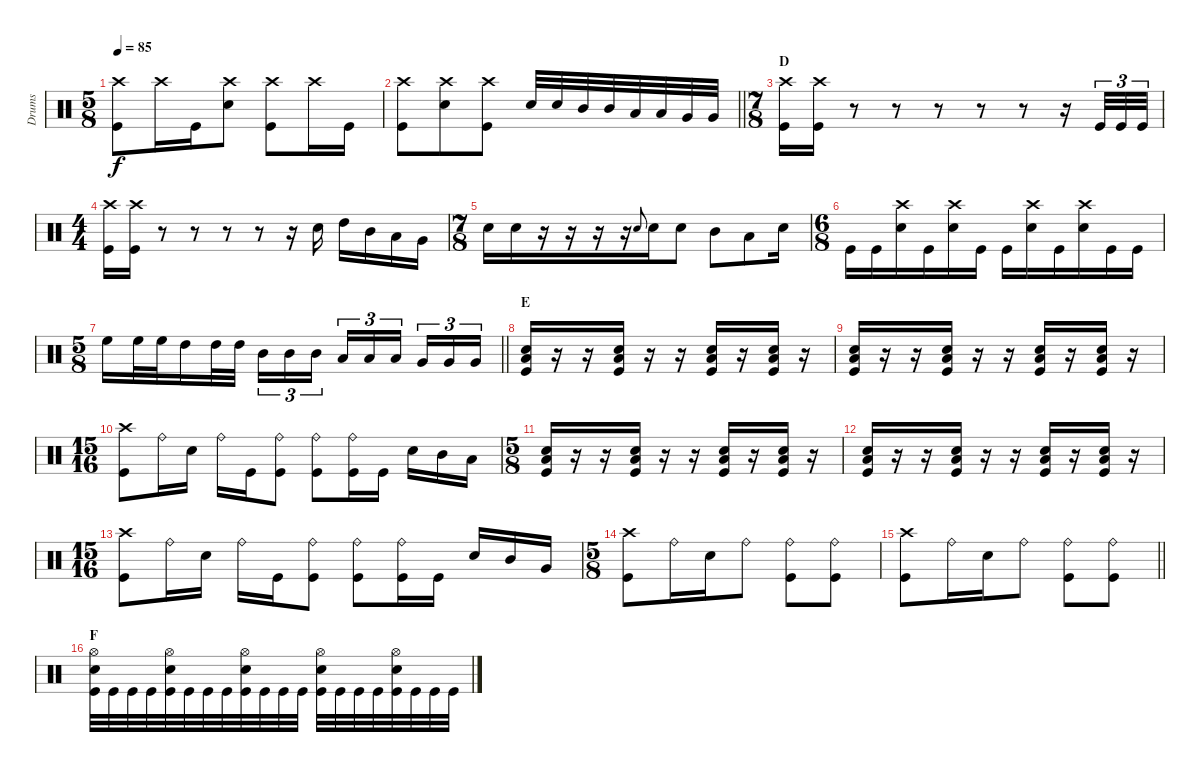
\track ("Drums" "Drums") {instrument percussion}
\staff {score}
\articulation defaults
\ts (5 8)
\tempo 85
\clef neutral
\ks c
("Crash high (hit)" "Kick (hit)").8{dy f} "Crash high (hit)".16 "Kick (hit)".16 ("Crash high (hit)" "Snare (hit) 2").8 ("Crash high (hit)" "Kick (hit)").8 "Crash high (hit)".16 "Kick (hit)".16 |
\barLineRight lightlight
("Crash high (hit)" "Kick (hit)").8 ("Snare (hit) 2" "Crash high (hit)").8 ("Crash high (hit)" "Kick (hit)").8 "Snare (hit) 2".32 "Snare (hit) 2".32 "Mid Tom (hit)".32 "Mid Tom (hit)".32 "Low Tom (hit)".32 "Low Tom (hit)".32 "Very Low Tom (hit)".32 "Very Low Tom (hit)".32 |
\ts (7 8)
\section ("" "D")
("Crash high (hit)" "Kick (hit)").16 ("Crash high (hit)" "Kick (hit)").16 r.8 r.8 r.8 r.8 r.8 r.16 "Kick (hit)".32{tu (3 2)} "Kick (hit)".32{tu (3 2)} "Kick (hit)".32{tu (3 2)} |
\ts (4 4)
("Crash high (hit)" "Kick (hit)").16 ("Crash high (hit)" "Kick (hit)").16 r.8 r.8 r.8 r.8 r.16 "Snare (hit) 2".16 "High Tom (hit)".16 "Mid Tom (hit)".16 "Low Tom (hit)".16 "Very Low Tom (hit)".16 |
\ts (7 8)
"Snare (hit) 2".16 "Snare (hit) 2".16 r.16 r.16 r.16 r.16 "Snare (hit) 2".8{gr onbeat} "Snare (hit) 2".16 "Snare (hit) 2".8 "Mid Tom (hit)".8 "Low Tom (hit)".8 "Snare (hit) 2".16 |
\ts (6 8)
"Kick (hit)".16 "Kick (hit)".16 ("Snare (hit) 2" "Crash high (hit)").16 "Kick (hit)".16 ("Crash high (hit)" "Snare (hit) 2").16 "Kick (hit)".16 "Kick (hit)".16 ("Crash high (hit)" "Snare (hit) 2").16 "Kick (hit)".16 ("Crash high (hit)" "Snare (hit) 2").16 "Kick (hit)".16 "Kick (hit)".16 |
\ts (5 8)
\barLineRight lightlight "High Floor Tom (hit)".16 "High Floor Tom (hit)".32 "High Floor Tom (hit)".32 "High Tom (hit)".16 "High Tom (hit)".32 "High Tom (hit)".32 "Mid Tom (hit)".16{tu (3 2)} "Mid Tom (hit)".16{tu (3 2)} "Mid Tom (hit)".16{tu (3 2)} "Low Tom (hit)".16{tu (3 2)} "Low Tom (hit)".16{tu (3 2)} "Low Tom (hit)".16{tu (3 2)} "Very Low Tom (hit)".16{tu (3 2)} "Very Low Tom (hit)".16{tu (3 2)} "Very Low Tom (hit)".16{tu (3 2)}
|
\section ("" "E")
("Snare (hit) 2" "Kick (hit)" "Low Floor Tom (hit)").16 r.16 r.16 ("Snare (hit) 2" "Kick (hit)" "Low Floor Tom (hit)").16 r.16 r.16 ("Snare (hit) 2" "Kick (hit)" "Low Floor Tom (hit)").16 r.16 ("Snare (hit) 2" "Kick (hit)" "Low Floor Tom (hit)").16 r.16 |
("Snare (hit) 2" "Kick (hit)" "Low Floor Tom (hit)").16 r.16 r.16 ("Snare (hit) 2" "Kick (hit)" "Low Floor Tom (hit)").16 r.16 r.16 ("Snare (hit) 2" "Kick (hit)" "Low Floor Tom (hit)").16 r.16 ("Snare (hit) 2" "Kick (hit)" "Low Floor Tom (hit)").16 r.16 |
\ts (15 16)
("Crash high (hit)" "Kick (hit)").8 "Ride (bell)".16 "Snare (hit) 2".16 "Ride (bell)".16 "Kick (hit)".16 ("Ride (bell)" "Kick (hit)").8 ("Ride (bell)" "Kick (hit)").8 ("Ride (bell)" "Kick (hit)").16 "Kick (hit)".16 "Snare (hit) 2".16 "Mid Tom (hit)".16 "Low Tom (hit)".16 |
\ts (5 8)
("Snare (hit) 2" "Kick (hit)" "Low Floor Tom (hit)").16 r.16 r.16 ("Snare (hit) 2" "Kick (hit)" "Low Floor Tom (hit)").16 r.16 r.16 ("Snare (hit) 2" "Kick (hit)" "Low Floor Tom (hit)").16 r.16 ("Snare (hit) 2" "Kick (hit)" "Low Floor Tom (hit)").16 r.16 |
("Snare (hit) 2" "Kick (hit)" "Low Floor Tom (hit)").16 r.16 r.16 ("Snare (hit) 2" "Kick (hit)" "Low Floor Tom (hit)").16 r.16 r.16 ("Snare (hit) 2" "Kick (hit)" "Low Floor Tom (hit)").16 r.16 ("Snare (hit) 2" "Kick (hit)" "Low Floor Tom (hit)").16 r.16 |
\ts (15 16)
("Crash high (hit)" "Kick (hit)").8 "Ride (bell)".16 "Snare (hit) 2".16 "Ride (bell)".16 "Kick (hit)".16 ("Ride (bell)" "Kick (hit)").8 ("Ride (bell)" "Kick (hit)").8 ("Ride (bell)" "Kick (hit)").16 "Kick (hit)".16 "Snare (hit) 2".16 "Mid Tom (hit)".16 "Very Low Tom (hit)".16 |
\ts (5 8)
("Crash high (hit)" "Kick (hit)").8 "Ride (bell)".16 "Snare (hit) 2".16 "Ride (bell)".8 ("Ride (bell)" "Kick (hit)").8 ("Ride (bell)" "Kick (hit)").8 |
\barLineRight lightlight
("Crash high (hit)" "Kick (hit)").8 "Ride (bell)".16 "Snare (hit) 2".16 "Ride (bell)".8 ("Ride (bell)" "Kick (hit)").8 ("Ride (bell)" "Kick (hit)").8 |
\section ("" "F")
("Hi-Hat (open)" "Kick (hit)" "Snare (hit) 2").32 "Kick (hit)".32 "Kick (hit)".32 "Kick (hit)".32 ("Hi-Hat (open)" "Kick (hit)" "Snare (hit) 2").32 "Kick (hit)".32 "Kick (hit)".32 "Kick (hit)".32 ("Hi-Hat (open)" "Kick (hit)" "Snare (hit) 2").32 "Kick (hit)".32 "Kick (hit)".32 "Kick (hit)".32 ("Hi-Hat (open)" "Kick (hit)" "Snare (hit) 2").32 "Kick (hit)".32 "Kick (hit)".32 "Kick (hit)".32 ("Hi-Hat (open)" "Kick (hit)" "Snare (hit) 2").32 "Kick (hit)".32 "Kick (hit)".32 "Kick (hit)".32
